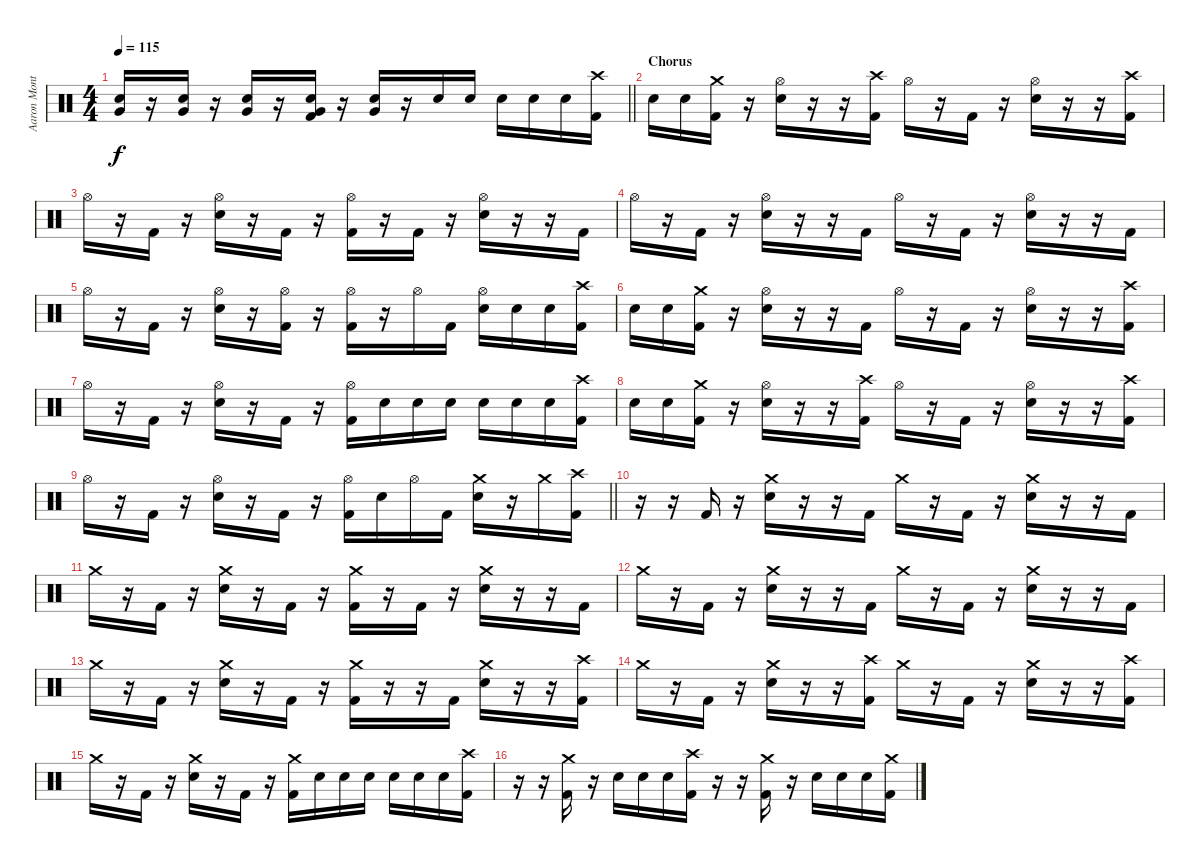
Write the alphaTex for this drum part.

\track ("Aaron Montgomery" "Aaron Mont") {instrument percussion}
\staff {score}
\articulation defaults
\ts (4 4)
\tempo 115
\clef neutral
\barLineRight lightlight
\ks c
("Very Low Tom (hit)" "Snare (hit) 2").16{dy f} r.16 ("Very Low Tom (hit)" "Snare (hit) 2").16 r.16 ("Very Low Tom (hit)" "Snare (hit) 2").16 r.16 ("Very Low Tom (hit)" "Snare (hit) 2" "Kick (hit) 2").16 r.16 ("Very Low Tom (hit)" "Snare (hit) 2").16 r.16 "Snare (hit) 2".16 "Snare (hit) 2".16 "Snare (hit) 2".16 "Snare (hit) 2".16 "Snare (hit) 2".16 ("Crash high (hit)" "Kick (hit) 2").16 |
\section ("" "Chorus")
"Snare (hit) 2".16 "Snare (hit) 2".16 ("Crash medium (hit)" "Kick (hit) 2").16 r.16 ("Hi-Hat (open)" "Snare (hit) 2").16 r.16 r.16 ("Crash high (hit)" "Kick (hit) 2").16 "Hi-Hat (open)".16 r.16 "Kick (hit) 2".16 r.16 ("Hi-Hat (open)" "Snare (hit) 2").16 r.16 r.16 ("Crash high (hit)" "Kick (hit) 2").16 |
"Hi-Hat (open)".16 r.16 "Kick (hit) 2".16 r.16 ("Hi-Hat (open)" "Snare (hit) 2").16 r.16 "Kick (hit) 2".16 r.16 ("Hi-Hat (open)" "Kick (hit) 2").16 r.16 "Kick (hit) 2".16 r.16 ("Hi-Hat (open)" "Snare (hit) 2").16 r.16 r.16 "Kick (hit) 2".16 |
"Hi-Hat (open)".16 r.16 "Kick (hit) 2".16 r.16 ("Hi-Hat (open)" "Snare (hit) 2").16 r.16 r.16 "Kick (hit) 2".16 "Hi-Hat (open)".16 r.16 "Kick (hit) 2".16 r.16 ("Hi-Hat (open)" "Snare (hit) 2").16 r.16 r.16 "Kick (hit) 2".16 |
"Hi-Hat (open)".16 r.16 "Kick (hit) 2".16 r.16 ("Hi-Hat (open)" "Snare (hit) 2").16 r.16 ("Hi-Hat (open)" "Kick (hit) 2").16 r.16 ("Hi-Hat (open)" "Kick (hit) 2").16 r.16 "Hi-Hat (open)".16 "Kick (hit) 2".16 ("Hi-Hat (open)" "Snare (hit) 2").16 "Snare (hit) 2".16 "Snare (hit) 2".16 ("Crash high (hit)" "Kick (hit) 2").16 |
"Snare (hit) 2".16 "Snare (hit) 2".16 ("Crash medium (hit)" "Kick (hit) 2").16 r.16 ("Hi-Hat (open)" "Snare (hit) 2").16 r.16 r.16 "Kick (hit) 2".16 "Hi-Hat (open)".16 r.16 "Kick (hit) 2".16 r.16 ("Hi-Hat (open)" "Snare (hit) 2").16 r.16 r.16 ("Crash high (hit)" "Kick (hit) 2").16 |
"Hi-Hat (open)".16 r.16 "Kick (hit) 2".16 r.16 ("Hi-Hat (open)" "Snare (hit) 2").16 r.16 "Kick (hit) 2".16 r.16 ("Hi-Hat (open)" "Kick (hit) 2").16 "Snare (hit) 2".16 "Snare (hit) 2".16 "Snare (hit) 2".16 "Snare (hit) 2".16 "Snare (hit) 2".16 "Snare (hit) 2".16 ("Crash high (hit)" "Kick (hit) 2").16 |
"Snare (hit) 2".16 "Snare (hit) 2".16 ("Crash medium (hit)" "Kick (hit) 2").16 r.16 ("Hi-Hat (open)" "Snare (hit) 2").16 r.16 r.16 ("Crash high (hit)" "Kick (hit) 2").16 "Hi-Hat (open)".16 r.16 "Kick (hit) 2".16 r.16 ("Hi-Hat (open)" "Snare (hit) 2").16 r.16 r.16 ("Crash high (hit)" "Kick (hit) 2").16 |
\barLineRight lightlight "Hi-Hat (open)".16
r.16 "Kick (hit) 2".16 r.16 ("Hi-Hat (open)" "Snare (hit) 2").16 r.16 "Kick (hit) 2".16 r.16 ("Hi-Hat (open)" "Kick (hit) 2").16 "Snare (hit) 2".16 "Hi-Hat (open)".16 "Kick (hit) 2".16 ("Crash medium (hit)" "Snare (hit) 2").16 r.16 "Crash medium (hit)".16 ("Crash high (hit)" "Kick (hit) 2").16 |
r.16 r.16 "Kick (hit) 2".16 r.16 ("Crash medium (hit)" "Snare (hit) 2").16 r.16 r.16 "Kick (hit) 2".16 "Crash medium (hit)".16 r.16 "Kick (hit) 2".16 r.16 ("Crash medium (hit)" "Snare (hit) 2").16 r.16 r.16 "Kick (hit) 2".16 |
"Crash medium (hit)".16 r.16 "Kick (hit) 2".16 r.16 ("Crash medium (hit)" "Snare (hit) 2").16 r.16 "Kick (hit) 2".16 r.16 ("Crash medium (hit)" "Kick (hit) 2").16 r.16 "Kick (hit) 2".16 r.16 ("Crash medium (hit)" "Snare (hit) 2").16 r.16 r.16 "Kick (hit) 2".16 |
"Crash medium (hit)".16 r.16 "Kick (hit) 2".16 r.16 ("Crash medium (hit)" "Snare (hit) 2").16 r.16 r.16 "Kick (hit) 2".16 "Crash medium (hit)".16 r.16 "Kick (hit) 2".16 r.16 ("Crash medium (hit)" "Snare (hit) 2").16 r.16 r.16 "Kick (hit) 2".16 |
"Crash medium (hit)".16 r.16 "Kick (hit) 2".16 r.16 ("Crash medium (hit)" "Snare (hit) 2").16 r.16 "Kick (hit) 2".16 r.16 ("Crash medium (hit)" "Kick (hit) 2").16 r.16 r.16 "Kick (hit) 2".16 ("Crash medium (hit)" "Snare (hit) 2").16 r.16 r.16 ("Crash high (hit)" "Kick (hit) 2").16 |
"Crash medium (hit)".16 r.16 "Kick (hit) 2".16 r.16 ("Crash medium (hit)" "Snare (hit) 2").16 r.16 r.16 ("Crash high (hit)" "Kick (hit) 2").16 "Crash medium (hit)".16 r.16 "Kick (hit) 2".16 r.16 ("Crash medium (hit)" "Snare (hit) 2").16 r.16 r.16 ("Crash high (hit)" "Kick (hit) 2").16 |
"Crash medium (hit)".16 r.16 "Kick (hit) 2".16 r.16 ("Crash medium (hit)" "Snare (hit) 2").16 r.16 "Kick (hit) 2".16 r.16 ("Crash medium (hit)" "Kick (hit) 2").16 "Snare (hit) 2".16 "Snare (hit) 2".16 "Snare (hit) 2".16 "Snare (hit) 2".16 "Snare (hit) 2".16 "Snare (hit) 2".16 ("Crash high (hit)" "Kick (hit) 2").16 |
r.16 r.16 ("Crash medium (hit)" "Kick (hit) 2").16 r.16 "Snare (hit) 2".16 "Snare (hit) 2".16 "Snare (hit) 2".16 ("Crash high (hit)" "Kick (hit) 2").16 r.16 r.16 ("Crash medium (hit)" "Kick (hit) 2").16 r.16 "Snare (hit) 2".16 "Snare (hit) 2".16 "Snare (hit) 2".16 ("Crash medium (hit)" "Kick (hit) 2").16
